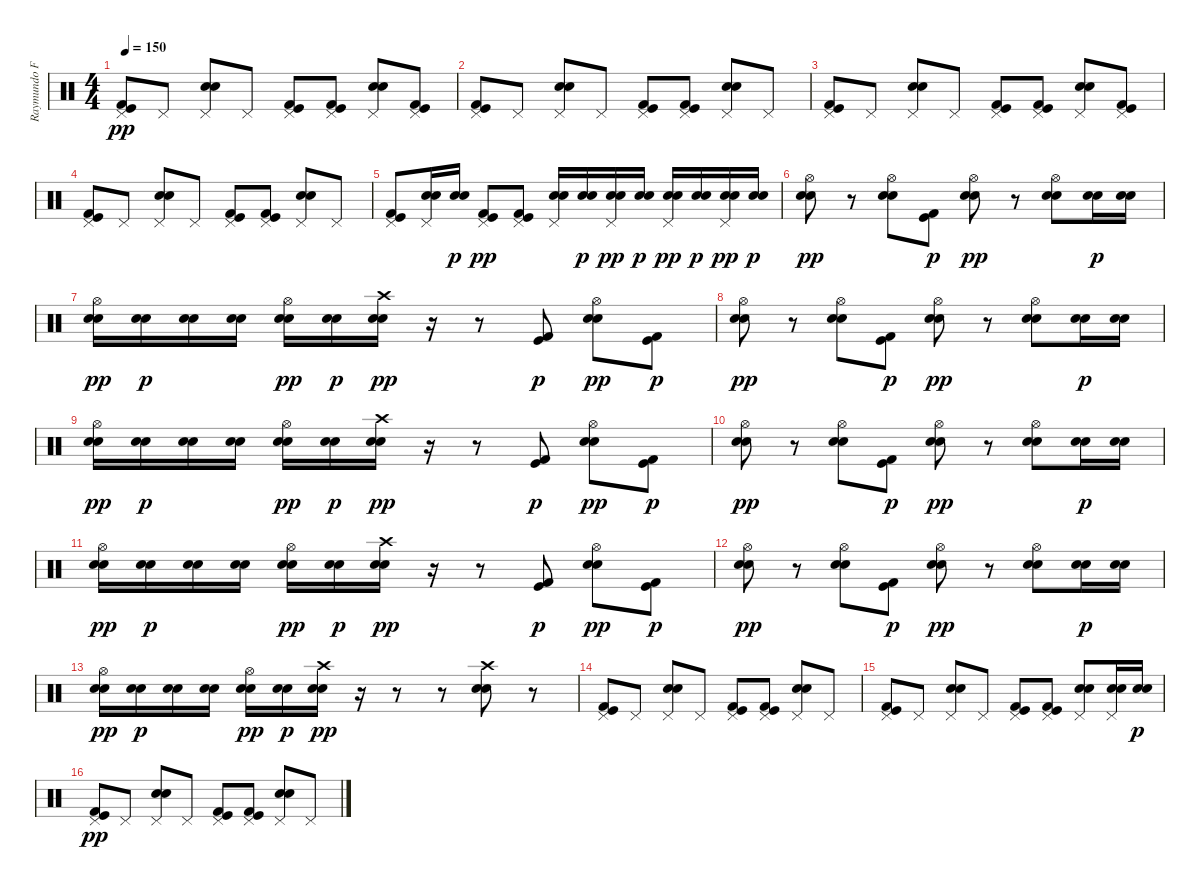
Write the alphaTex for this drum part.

\track ("Raymundo Fajardo (Bateria)" "Raymundo F") {instrument percussion}
\staff {score}
\articulation defaults
\ts (4 4)
\tempo 150
\clef neutral
\ks c
("Kick (hit) 2" "Kick (hit)" "Pedal Hi-Hat (hit)").8{dy pp} "Pedal Hi-Hat (hit)".8 ("Electric Snare (hit)" "Snare (hit) 2" "Pedal Hi-Hat (hit)").8 "Pedal Hi-Hat (hit)".8 ("Kick (hit) 2" "Kick (hit)" "Pedal Hi-Hat (hit)").8 ("Kick (hit) 2" "Kick (hit)" "Pedal Hi-Hat (hit)").8 ("Electric Snare (hit)" "Snare (hit) 2" "Pedal Hi-Hat (hit)").8 ("Kick (hit) 2" "Kick (hit)" "Pedal Hi-Hat (hit)").8 |
("Kick (hit) 2" "Kick (hit)" "Pedal Hi-Hat (hit)").8 "Pedal Hi-Hat (hit)".8 ("Electric Snare (hit)" "Snare (hit) 2" "Pedal Hi-Hat (hit)").8 "Pedal Hi-Hat (hit)".8 ("Kick (hit) 2" "Kick (hit)" "Pedal Hi-Hat (hit)").8 ("Kick (hit) 2" "Kick (hit)" "Pedal Hi-Hat (hit)").8 ("Electric Snare (hit)" "Snare (hit) 2" "Pedal Hi-Hat (hit)").8 "Pedal Hi-Hat (hit)".8 |
("Kick (hit) 2" "Kick (hit)" "Pedal Hi-Hat (hit)").8 "Pedal Hi-Hat (hit)".8 ("Electric Snare (hit)" "Snare (hit) 2" "Pedal Hi-Hat (hit)").8 "Pedal Hi-Hat (hit)".8 ("Kick (hit) 2" "Kick (hit)" "Pedal Hi-Hat (hit)").8 ("Kick (hit) 2" "Kick (hit)" "Pedal Hi-Hat (hit)").8 ("Electric Snare (hit)" "Snare (hit) 2" "Pedal Hi-Hat (hit)").8 ("Kick (hit) 2" "Kick (hit)" "Pedal Hi-Hat (hit)").8 |
("Kick (hit) 2" "Kick (hit)" "Pedal Hi-Hat (hit)").8 "Pedal Hi-Hat (hit)".8 ("Electric Snare (hit)" "Snare (hit) 2" "Pedal Hi-Hat (hit)").8 "Pedal Hi-Hat (hit)".8 ("Kick (hit) 2" "Kick (hit)" "Pedal Hi-Hat (hit)").8 ("Kick (hit) 2" "Kick (hit)" "Pedal Hi-Hat (hit)").8 ("Electric Snare (hit)" "Snare (hit) 2" "Pedal Hi-Hat (hit)").8 "Pedal Hi-Hat (hit)".8 |
("Kick (hit)" "Kick (hit) 2" "Pedal Hi-Hat (hit)").8 ("Snare (hit) 2" "Electric Snare (hit)" "Pedal Hi-Hat (hit)").16 ("Snare (hit) 2" "Electric Snare (hit)").16{dy p} ("Kick (hit)" "Kick (hit) 2" "Pedal Hi-Hat (hit)").8{dy pp} ("Kick (hit)" "Kick (hit) 2" "Pedal Hi-Hat (hit)").8 ("Snare (hit) 2" "Electric Snare (hit)" "Pedal Hi-Hat (hit)").16 ("Snare (hit) 2" "Electric Snare (hit)").16{dy p} ("Snare (hit) 2" "Electric Snare (hit)" "Pedal Hi-Hat (hit)").16{dy pp} ("Snare (hit) 2" "Electric Snare (hit)").16{dy p} ("Snare (hit) 2" "Electric Snare (hit)" "Pedal Hi-Hat (hit)").16{dy pp} ("Snare (hit) 2" "Electric Snare (hit)").16{dy p} ("Snare (hit) 2" "Electric Snare (hit)" "Pedal Hi-Hat (hit)").16{dy pp} ("Snare (hit) 2" "Electric Snare (hit)").16{dy p} |
("Electric Snare (hit)" "Snare (hit) 2" "Hi-Hat (open)").8{dy pp} r.8 ("Electric Snare (hit)" "Snare (hit) 2" "Hi-Hat (open)").8 ("Kick (hit) 2" "Kick (hit)").8{dy p} ("Electric Snare (hit)" "Snare (hit) 2" "Hi-Hat (open)").8{dy pp} r.8 ("Electric Snare (hit)" "Snare (hit) 2" "Hi-Hat (open)").8 ("Electric Snare (hit)" "Snare (hit) 2").16{dy p} ("Electric Snare (hit)" "Snare (hit) 2").16 |
("Electric Snare (hit)" "Snare (hit) 2" "Hi-Hat (open)").16{dy pp} ("Electric Snare (hit)" "Snare (hit) 2").16{dy p} ("Electric Snare (hit)" "Snare (hit) 2").16 ("Electric Snare (hit)" "Snare (hit) 2").16 ("Electric Snare (hit)" "Snare (hit) 2" "Hi-Hat (open)").16{dy pp} ("Electric Snare (hit)" "Snare (hit) 2").16{dy p} ("Electric Snare (hit)" "Snare (hit) 2" "Crash high (hit)").16{dy pp} r.16 r.8 ("Kick (hit) 2" "Kick (hit)").8{dy p} ("Electric Snare (hit)" "Snare (hit) 2" "Hi-Hat (open)").8{dy pp} ("Kick (hit) 2" "Kick (hit)").8{dy p} |
("Electric Snare (hit)" "Snare (hit) 2" "Hi-Hat (open)").8{dy pp} r.8 ("Electric Snare (hit)" "Snare (hit) 2" "Hi-Hat (open)").8 ("Kick (hit) 2" "Kick (hit)").8{dy p} ("Electric Snare (hit)" "Snare (hit) 2" "Hi-Hat (open)").8{dy pp} r.8 ("Electric Snare (hit)" "Snare (hit) 2" "Hi-Hat (open)").8 ("Electric Snare (hit)" "Snare (hit) 2").16{dy p} ("Electric Snare (hit)" "Snare (hit) 2").16 |
("Electric Snare (hit)" "Snare (hit) 2" "Hi-Hat (open)").16{dy pp} ("Electric Snare (hit)" "Snare (hit) 2").16{dy p} ("Electric Snare (hit)" "Snare (hit) 2").16 ("Electric Snare (hit)" "Snare (hit) 2").16 ("Electric Snare (hit)" "Snare (hit) 2" "Hi-Hat (open)").16{dy pp} ("Electric Snare (hit)" "Snare (hit) 2").16{dy p} ("Electric Snare (hit)" "Snare (hit) 2" "Crash high (hit)").16{dy pp} r.16 r.8 ("Kick (hit) 2" "Kick (hit)").8{dy p} ("Electric Snare (hit)" "Snare (hit) 2" "Hi-Hat (open)").8{dy pp} ("Kick (hit) 2" "Kick (hit)").8{dy p} |
("Electric Snare (hit)" "Snare (hit) 2" "Hi-Hat (open)").8{dy pp} r.8 ("Electric Snare (hit)" "Snare (hit) 2" "Hi-Hat (open)").8 ("Kick (hit) 2" "Kick (hit)").8{dy p} ("Electric Snare (hit)" "Snare (hit) 2" "Hi-Hat (open)").8{dy pp} r.8 ("Electric Snare (hit)" "Snare (hit) 2" "Hi-Hat (open)").8 ("Electric Snare (hit)" "Snare (hit) 2").16{dy p} ("Electric Snare (hit)" "Snare (hit) 2").16 |
("Electric Snare (hit)" "Snare (hit) 2" "Hi-Hat (open)").16{dy pp} ("Electric Snare (hit)" "Snare (hit) 2").16{dy p} ("Electric Snare (hit)" "Snare (hit) 2").16 ("Electric Snare (hit)" "Snare (hit) 2").16 ("Electric Snare (hit)" "Snare (hit) 2" "Hi-Hat (open)").16{dy pp} ("Electric Snare (hit)" "Snare (hit) 2").16{dy p} ("Electric Snare (hit)" "Snare (hit) 2" "Crash high (hit)").16{dy pp} r.16 r.8 ("Kick (hit) 2" "Kick (hit)").8{dy p} ("Electric Snare (hit)" "Snare (hit) 2" "Hi-Hat (open)").8{dy pp} ("Kick (hit) 2" "Kick (hit)").8{dy p} |
("Electric Snare (hit)" "Snare (hit) 2" "Hi-Hat (open)").8{dy pp} r.8 ("Electric Snare (hit)" "Snare (hit) 2" "Hi-Hat (open)").8 ("Kick (hit) 2" "Kick (hit)").8{dy p} ("Electric Snare (hit)" "Snare (hit) 2" "Hi-Hat (open)").8{dy pp} r.8 ("Electric Snare (hit)" "Snare (hit) 2" "Hi-Hat (open)").8 ("Electric Snare (hit)" "Snare (hit) 2").16{dy p} ("Electric Snare (hit)" "Snare (hit) 2").16 |
("Electric Snare (hit)" "Snare (hit) 2" "Hi-Hat (open)").16{dy pp} ("Electric Snare (hit)" "Snare (hit) 2").16{dy p} ("Electric Snare (hit)" "Snare (hit) 2").16 ("Electric Snare (hit)" "Snare (hit) 2").16 ("Electric Snare (hit)" "Snare (hit) 2" "Hi-Hat (open)").16{dy pp} ("Electric Snare (hit)" "Snare (hit) 2").16{dy p} ("Electric Snare (hit)" "Snare (hit) 2" "Crash high (hit)").16{dy pp} r.16 r.8 r.8 ("Electric Snare (hit)" "Snare (hit) 2" "Crash high (hit)").8 r.8 |
("Kick (hit) 2" "Kick (hit)" "Pedal Hi-Hat (hit)").8 "Pedal Hi-Hat (hit)".8 ("Electric Snare (hit)" "Snare (hit) 2" "Pedal Hi-Hat (hit)").8 "Pedal Hi-Hat (hit)".8 ("Kick (hit) 2" "Kick (hit)" "Pedal Hi-Hat (hit)").8 ("Kick (hit) 2" "Kick (hit)" "Pedal Hi-Hat (hit)").8 ("Electric Snare (hit)" "Snare (hit) 2" "Pedal Hi-Hat (hit)").8 "Pedal Hi-Hat (hit)".8 |
("Kick (hit) 2" "Kick (hit)" "Pedal Hi-Hat (hit)").8 "Pedal Hi-Hat (hit)".8 ("Electric Snare (hit)" "Snare (hit) 2" "Pedal Hi-Hat (hit)").8 "Pedal Hi-Hat (hit)".8 ("Kick (hit) 2" "Kick (hit)" "Pedal Hi-Hat (hit)").8 ("Kick (hit) 2" "Kick (hit)" "Pedal Hi-Hat (hit)").8 ("Electric Snare (hit)" "Snare (hit) 2" "Pedal Hi-Hat (hit)").8 ("Electric Snare (hit)" "Snare (hit) 2" "Pedal Hi-Hat (hit)").16 ("Electric Snare (hit)" "Snare (hit) 2").16{dy p} |
("Kick (hit) 2" "Kick (hit)" "Pedal Hi-Hat (hit)").8{dy pp} "Pedal Hi-Hat (hit)".8 ("Electric Snare (hit)" "Snare (hit) 2" "Pedal Hi-Hat (hit)").8 "Pedal Hi-Hat (hit)".8 ("Kick (hit) 2" "Kick (hit)" "Pedal Hi-Hat (hit)").8 ("Kick (hit) 2" "Kick (hit)" "Pedal Hi-Hat (hit)").8 ("Electric Snare (hit)" "Snare (hit) 2" "Pedal Hi-Hat (hit)").8 "Pedal Hi-Hat (hit)".8
